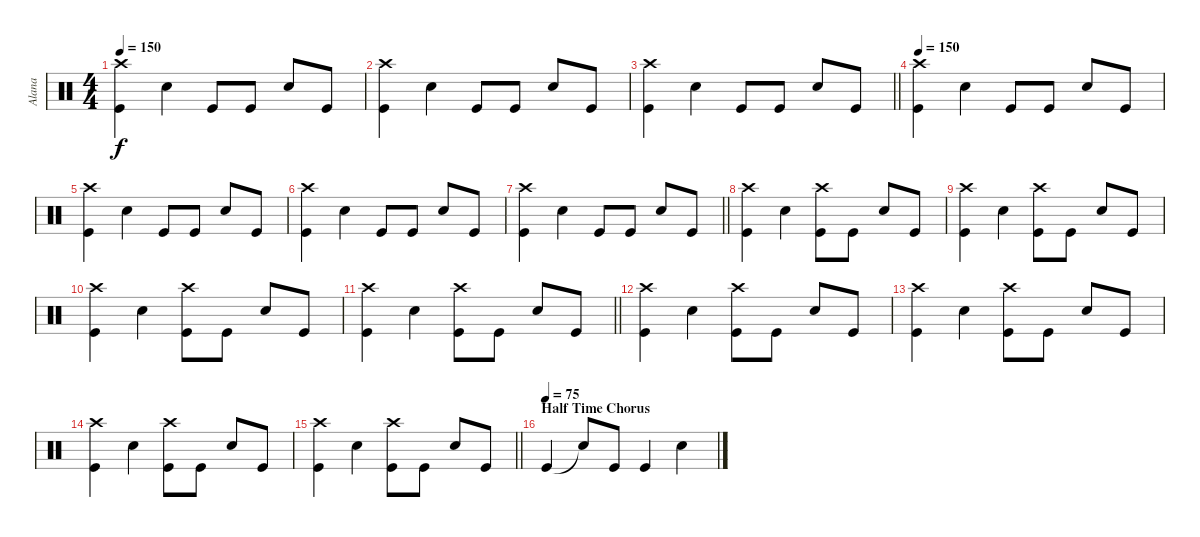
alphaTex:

\track ("Alana" "Alana") {instrument percussion}
\staff {score}
\articulation defaults
\ts (4 4)
\tempo 150
\clef neutral
\ks c
("Crash high (hit)" "Kick (hit)").4{dy f} "Electric Snare (hit)".4 "Kick (hit)".8 "Kick (hit)".8 "Electric Snare (hit)".8 "Kick (hit)".8 |
("Crash high (hit)" "Kick (hit)").4 "Electric Snare (hit)".4 "Kick (hit)".8 "Kick (hit)".8 "Electric Snare (hit)".8 "Kick (hit)".8 |
\barLineRight lightlight
("Crash high (hit)" "Kick (hit)").4 "Electric Snare (hit)".4 "Kick (hit)".8 "Kick (hit)".8 "Electric Snare (hit)".8 "Kick (hit)".8 |
\tempo 150
("Crash high (hit)" "Kick (hit)").4 "Electric Snare (hit)".4 "Kick (hit)".8 "Kick (hit)".8 "Electric Snare (hit)".8 "Kick (hit)".8 |
("Crash high (hit)" "Kick (hit)").4 "Electric Snare (hit)".4 "Kick (hit)".8 "Kick (hit)".8 "Electric Snare (hit)".8 "Kick (hit)".8 |
("Crash high (hit)" "Kick (hit)").4 "Electric Snare (hit)".4 "Kick (hit)".8 "Kick (hit)".8 "Electric Snare (hit)".8 "Kick (hit)".8 |
\barLineRight lightlight
("Crash high (hit)" "Kick (hit)").4 "Electric Snare (hit)".4 "Kick (hit)".8 "Kick (hit)".8 "Electric Snare (hit)".8 "Kick (hit)".8 |
("Crash high (hit)" "Kick (hit)").4 "Electric Snare (hit)".4 ("Crash high (hit)" "Kick (hit)").8 "Kick (hit)".8 "Electric Snare (hit)".8 "Kick (hit)".8 |
("Crash high (hit)" "Kick (hit)").4 "Electric Snare (hit)".4 ("Crash high (hit)" "Kick (hit)").8 "Kick (hit)".8 "Electric Snare (hit)".8 "Kick (hit)".8 |
("Crash high (hit)" "Kick (hit)").4 "Electric Snare (hit)".4 ("Crash high (hit)" "Kick (hit)").8 "Kick (hit)".8 "Electric Snare (hit)".8 "Kick (hit)".8 |
\barLineRight lightlight
("Crash high (hit)" "Kick (hit)").4 "Electric Snare (hit)".4 ("Crash high (hit)" "Kick (hit)").8 "Kick (hit)".8 "Electric Snare (hit)".8 "Kick (hit)".8 |
("Crash high (hit)" "Kick (hit)").4 "Electric Snare (hit)".4 ("Crash high (hit)" "Kick (hit)").8 "Kick (hit)".8 "Electric Snare (hit)".8 "Kick (hit)".8 |
("Crash high (hit)" "Kick (hit)").4 "Electric Snare (hit)".4 ("Crash high (hit)" "Kick (hit)").8 "Kick (hit)".8 "Electric Snare (hit)".8 "Kick (hit)".8 |
("Crash high (hit)" "Kick (hit)").4 "Electric Snare (hit)".4 ("Crash high (hit)" "Kick (hit)").8 "Kick (hit)".8 "Electric Snare (hit)".8 "Kick (hit)".8 |
\barLineRight lightlight
("Crash high (hit)" "Kick (hit)").4 "Electric Snare (hit)".4 ("Crash high (hit)" "Kick (hit)").8 "Kick (hit)".8 "Electric Snare (hit)".8 "Kick (hit)".8 |
\section ("" "Half Time Chorus")
\tempo (75)
"Kick (hit)".4 "Snare (hit)"{t}.8 "Kick (hit)".8 "Kick (hit)".4 "Electric Snare (hit)".4
